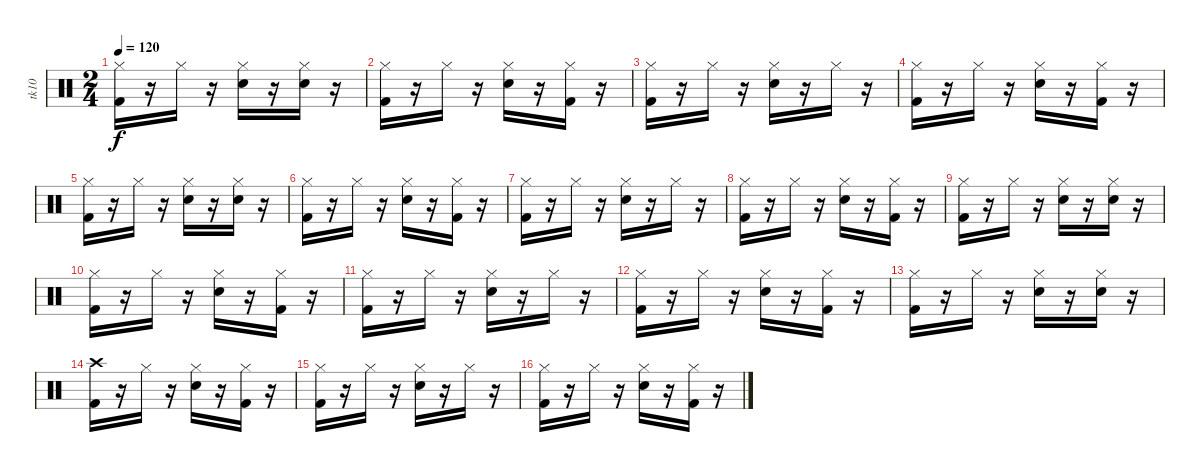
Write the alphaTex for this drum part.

\track ("tk10" "tk10") {instrument percussion}
\staff {score}
\articulation defaults
\ts (2 4)
\tempo 120
\clef neutral
\ks c
("Kick (hit) 2" "Hi-Hat (closed)").16{dy f} r.16 "Hi-Hat (closed)".16 r.16 ("Hi-Hat (closed)" "Snare (hit) 2").16 r.16 ("Hi-Hat (closed)" "Snare (hit) 2").16 r.16 |
("Hi-Hat (closed)" "Kick (hit) 2").16 r.16 "Hi-Hat (closed)".16 r.16 ("Hi-Hat (closed)" "Snare (hit) 2").16 r.16 ("Kick (hit) 2" "Hi-Hat (closed)").16 r.16 |
("Hi-Hat (closed)" "Kick (hit) 2").16 r.16 "Hi-Hat (closed)".16 r.16 ("Hi-Hat (closed)" "Snare (hit) 2").16 r.16 "Hi-Hat (closed)".16 r.16 |
("Kick (hit) 2" "Hi-Hat (closed)").16 r.16 "Hi-Hat (closed)".16 r.16 ("Snare (hit) 2" "Hi-Hat (closed)").16 r.16 ("Hi-Hat (closed)" "Kick (hit) 2").16 r.16 |
("Hi-Hat (closed)" "Kick (hit) 2").16 r.16 "Hi-Hat (closed)".16 r.16 ("Hi-Hat (closed)" "Snare (hit) 2").16 r.16 ("Hi-Hat (closed)" "Snare (hit) 2").16 r.16 |
("Hi-Hat (closed)" "Kick (hit) 2").16 r.16 "Hi-Hat (closed)".16 r.16 ("Snare (hit) 2" "Hi-Hat (closed)").16 r.16 ("Kick (hit) 2" "Hi-Hat (closed)").16 r.16 |
("Hi-Hat (closed)" "Kick (hit) 2").16 r.16 "Hi-Hat (closed)".16 r.16 ("Snare (hit) 2" "Hi-Hat (closed)").16 r.16 "Hi-Hat (closed)".16 r.16 |
("Hi-Hat (closed)" "Kick (hit) 2").16 r.16 "Hi-Hat (closed)".16 r.16 ("Snare (hit) 2" "Hi-Hat (closed)").16 r.16 ("Kick (hit) 2" "Hi-Hat (closed)").16 r.16 |
("Hi-Hat (closed)" "Kick (hit) 2").16 r.16 "Hi-Hat (closed)".16 r.16 ("Snare (hit) 2" "Hi-Hat (closed)").16 r.16 ("Snare (hit) 2" "Hi-Hat (closed)").16 r.16 |
("Kick (hit) 2" "Hi-Hat (closed)").16 r.16 "Hi-Hat (closed)".16 r.16 ("Hi-Hat (closed)" "Snare (hit) 2").16 r.16 ("Hi-Hat (closed)" "Kick (hit) 2").16 r.16 |
("Kick (hit) 2" "Hi-Hat (closed)").16 r.16 "Hi-Hat (closed)".16 r.16 ("Hi-Hat (closed)" "Snare (hit) 2").16 r.16 "Hi-Hat (closed)".16 r.16 |
("Kick (hit) 2" "Hi-Hat (closed)").16 r.16 "Hi-Hat (closed)".16 r.16 ("Hi-Hat (closed)" "Snare (hit) 2").16 r.16 ("Hi-Hat (closed)" "Kick (hit) 2").16 r.16 |
("Kick (hit) 2" "Hi-Hat (closed)").16 r.16 "Hi-Hat (closed)".16 r.16 ("Snare (hit) 2" "Hi-Hat (closed)").16 r.16 ("Snare (hit) 2" "Hi-Hat (closed)").16 r.16 |
("Kick (hit) 2" "Crash high (hit)").16 r.16 "Hi-Hat (closed)".16 r.16 ("Snare (hit) 2" "Hi-Hat (closed)").16 r.16 ("Kick (hit) 2" "Hi-Hat (closed)").16 r.16 |
("Kick (hit) 2" "Hi-Hat (closed)").16 r.16 "Hi-Hat (closed)".16 r.16 ("Snare (hit) 2" "Hi-Hat (closed)").16 r.16 "Hi-Hat (closed)".16 r.16 |
("Hi-Hat (closed)" "Kick (hit) 2").16 r.16 "Hi-Hat (closed)".16 r.16 ("Hi-Hat (closed)" "Snare (hit) 2").16 r.16 ("Hi-Hat (closed)" "Kick (hit) 2").16 r.16
